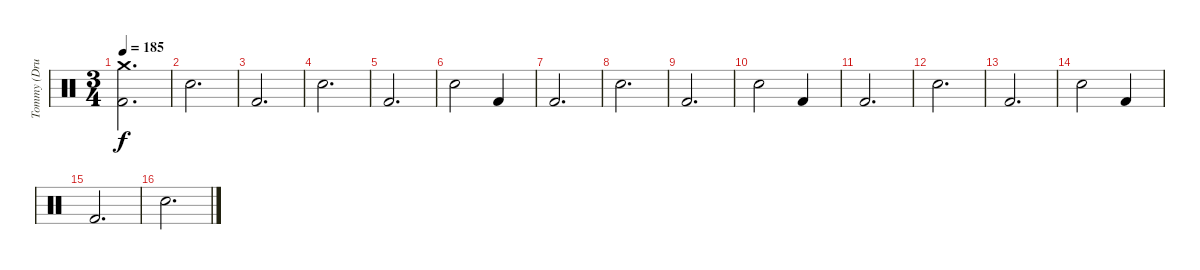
\track ("Tommy (Drums)" "Tommy (Dru") {instrument percussion}
\staff {score}
\articulation defaults
\ts (3 4)
\tempo 185
\clef neutral
\ks c
("Crash medium (hit)" "Kick (hit) 2").2{d dy f} |
"Electric Snare (hit)".2{d} |
"Kick (hit) 2".2{d} |
"Electric Snare (hit)".2{d} |
"Kick (hit) 2".2{d} |
"Electric Snare (hit)".2 "Kick (hit) 2".4 |
"Kick (hit) 2".2{d} |
"Electric Snare (hit)".2{d} |
"Kick (hit) 2".2{d} |
"Electric Snare (hit)".2 "Kick (hit) 2".4 |
"Kick (hit) 2".2{d} |
"Electric Snare (hit)".2{d} |
"Kick (hit) 2".2{d} |
"Electric Snare (hit)".2 "Kick (hit) 2".4 |
"Kick (hit) 2".2{d} |
"Electric Snare (hit)".2{d}
